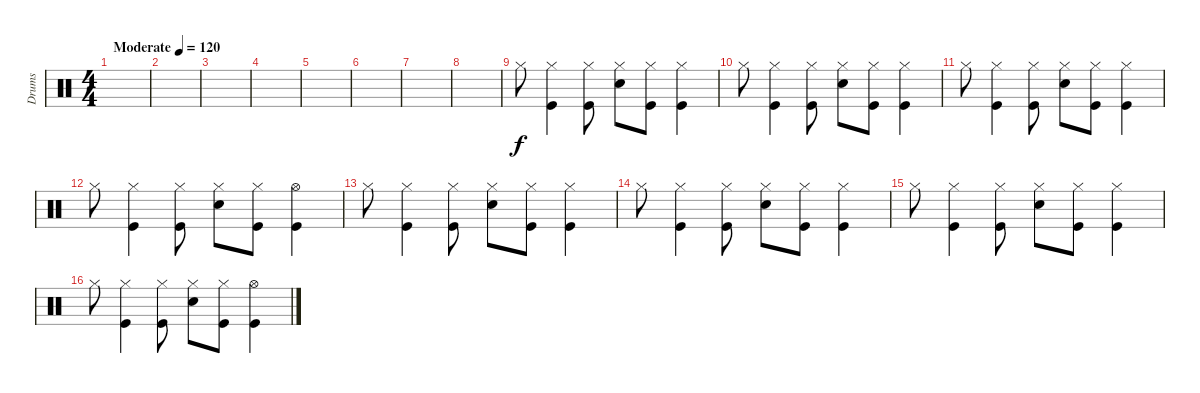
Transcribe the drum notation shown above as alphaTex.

\track ("Drums" "Drums") {instrument percussion}
\staff {score}
\articulation defaults
\ts (4 4)
\tempo (120 "Moderate")
\clef neutral
\ks c
|
|
|
|
|
|
|
|
"Hi-Hat (closed)".8 ("Hi-Hat (closed)" "Kick (hit)").4 ("Hi-Hat (closed)" "Kick (hit)").8 ("Snare (hit) 2" "Hi-Hat (closed)").8 ("Hi-Hat (closed)" "Kick (hit)").8 ("Hi-Hat (closed)" "Kick (hit)").4 |
"Hi-Hat (closed)".8 ("Hi-Hat (closed)" "Kick (hit)").4 ("Hi-Hat (closed)" "Kick (hit)").8 ("Snare (hit) 2" "Hi-Hat (closed)").8 ("Hi-Hat (closed)" "Kick (hit)").8 ("Hi-Hat (closed)" "Kick (hit)").4 |
"Hi-Hat (closed)".8 ("Hi-Hat (closed)" "Kick (hit)").4 ("Hi-Hat (closed)" "Kick (hit)").8 ("Snare (hit) 2" "Hi-Hat (closed)").8 ("Hi-Hat (closed)" "Kick (hit)").8 ("Hi-Hat (closed)" "Kick (hit)").4 |
"Hi-Hat (closed)".8 ("Hi-Hat (closed)" "Kick (hit)").4 ("Hi-Hat (closed)" "Kick (hit)").8 ("Snare (hit) 2" "Hi-Hat (closed)").8 ("Hi-Hat (closed)" "Kick (hit)").8 ("Hi-Hat (open)" "Kick (hit)").4 |
"Hi-Hat (closed)".8 ("Hi-Hat (closed)" "Kick (hit)").4 ("Hi-Hat (closed)" "Kick (hit)").8 ("Snare (hit) 2" "Hi-Hat (closed)").8 ("Hi-Hat (closed)" "Kick (hit)").8 ("Hi-Hat (closed)" "Kick (hit)").4 |
"Hi-Hat (closed)".8 ("Hi-Hat (closed)" "Kick (hit)").4 ("Hi-Hat (closed)" "Kick (hit)").8 ("Snare (hit) 2" "Hi-Hat (closed)").8 ("Hi-Hat (closed)" "Kick (hit)").8 ("Hi-Hat (closed)" "Kick (hit)").4 |
"Hi-Hat (closed)".8 ("Hi-Hat (closed)" "Kick (hit)").4 ("Hi-Hat (closed)" "Kick (hit)").8 ("Snare (hit) 2" "Hi-Hat (closed)").8 ("Hi-Hat (closed)" "Kick (hit)").8 ("Hi-Hat (closed)" "Kick (hit)").4 |
"Hi-Hat (closed)".8 ("Hi-Hat (closed)" "Kick (hit)").4 ("Hi-Hat (closed)" "Kick (hit)").8 ("Snare (hit) 2" "Hi-Hat (closed)").8 ("Hi-Hat (closed)" "Kick (hit)").8 ("Hi-Hat (open)" "Kick (hit)").4
